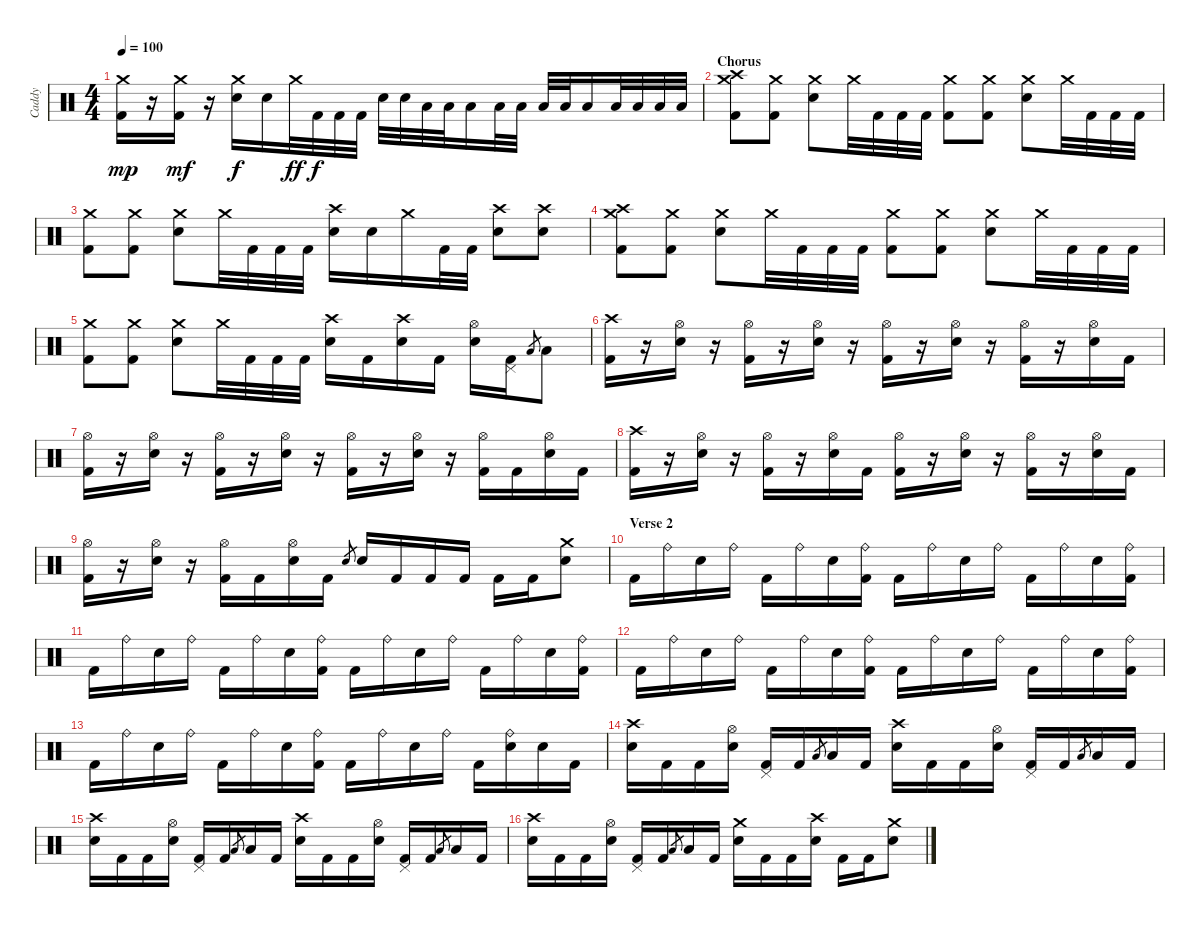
\track ("Caddy" "Caddy") {instrument percussion}
\staff {score}
\articulation defaults
\ts (4 4)
\tempo 100
\clef neutral
\ks c
("Crash medium (hit)" "Kick (hit) 2").16{dy mp} r.16 ("Crash medium (hit)" "Kick (hit) 2").16{dy mf} r.16 ("Crash medium (hit)" "Electric Snare (hit)").16{dy f} "Electric Snare (hit)".16 "Crash medium (hit)".32{dy ff} "Kick (hit) 2".32{dy f} "Kick (hit) 2".32 "Kick (hit) 2".32 "Electric Snare (hit)".32 "Electric Snare (hit)".32 "Low Tom (hit)".32 "Low Tom (hit)".32 "Low Tom (hit)".16 "Low Floor Tom (hit)".32 "Low Floor Tom (hit)".32 "Low Tom (hit)".32 "Low Tom (hit)".32 "Low Tom (hit)".16 "Low Floor Tom (hit)".32 "Low Floor Tom (hit)".32 "Low Floor Tom (hit)".32 "Low Floor Tom (hit)".32 |
\section ("" "Chorus")
("Crash medium (hit)" "Crash high (hit)" "Kick (hit) 2").8 ("Crash medium (hit)" "Kick (hit) 2").8 ("Crash medium (hit)" "Electric Snare (hit)").8 "Crash medium (hit)".32 "Kick (hit) 2".32 "Kick (hit) 2".32 "Kick (hit) 2".32 ("Crash medium (hit)" "Kick (hit) 2").8 ("Crash medium (hit)" "Kick (hit) 2").8 ("Crash medium (hit)" "Electric Snare (hit)").8 "Crash medium (hit)".32 "Kick (hit) 2".32 "Kick (hit) 2".32 "Kick (hit) 2".32 |
("Crash medium (hit)" "Kick (hit) 2").8 ("Crash medium (hit)" "Kick (hit) 2").8 ("Crash medium (hit)" "Electric Snare (hit)").8 "Crash medium (hit)".32 "Kick (hit) 2".32 "Kick (hit) 2".32 "Kick (hit) 2".32 ("Crash high (hit)" "Electric Snare (hit)").16 "Electric Snare (hit)".16 "Crash medium (hit)".16 "Kick (hit) 2".32 "Kick (hit) 2".32 ("Crash high (hit)" "Electric Snare (hit)").8 ("Crash high (hit)" "Electric Snare (hit)").8 |
("Crash medium (hit)" "Crash high (hit)" "Kick (hit) 2").8 ("Crash medium (hit)" "Kick (hit) 2").8 ("Crash medium (hit)" "Electric Snare (hit)").8 "Crash medium (hit)".32 "Kick (hit) 2".32 "Kick (hit) 2".32 "Kick (hit) 2".32 ("Crash medium (hit)" "Kick (hit) 2").8 ("Crash medium (hit)" "Kick (hit) 2").8 ("Crash medium (hit)" "Electric Snare (hit)").8 "Crash medium (hit)".32 "Kick (hit) 2".32 "Kick (hit) 2".32 "Kick (hit) 2".32 |
("Crash medium (hit)" "Kick (hit) 2").8 ("Crash medium (hit)" "Kick (hit) 2").8 ("Crash medium (hit)" "Electric Snare (hit)").8 "Crash medium (hit)".32 "Kick (hit) 2".32 "Kick (hit) 2".32 "Kick (hit) 2".32 ("Crash high (hit)" "Electric Snare (hit)").16 "Kick (hit) 2".16 ("Crash high (hit)" "Electric Snare (hit)").16 "Kick (hit) 2".16 ("Hi-Hat (open)" "Electric Snare (hit)").16 ("Pedal Hi-Hat (hit)" "Kick (hit) 2").16 "Low Floor Tom (hit)".8{gr} "Low Floor Tom (hit)".8 |
("Crash high (hit)" "Kick (hit) 2").16 r.16 ("Hi-Hat (open)" "Electric Snare (hit)").16 r.16 ("Hi-Hat (open)" "Kick (hit) 2").16 r.16 ("Hi-Hat (open)" "Electric Snare (hit)").16 r.16 ("Hi-Hat (open)" "Kick (hit) 2").16 r.16 ("Hi-Hat (open)" "Electric Snare (hit)").16 r.16 ("Hi-Hat (open)" "Kick (hit) 2").16 r.16 ("Hi-Hat (open)" "Electric Snare (hit)").16 "Kick (hit) 2".16 |
("Hi-Hat (open)" "Kick (hit) 2").16 r.16 ("Hi-Hat (open)" "Electric Snare (hit)").16 r.16 ("Hi-Hat (open)" "Kick (hit) 2").16 r.16 ("Hi-Hat (open)" "Electric Snare (hit)").16 r.16 ("Hi-Hat (open)" "Kick (hit) 2").16 r.16 ("Hi-Hat (open)" "Electric Snare (hit)").16 r.16 ("Hi-Hat (open)" "Kick (hit) 2").16 "Kick (hit) 2".16 ("Hi-Hat (open)" "Electric Snare (hit)").16 "Kick (hit) 2".16 |
("Crash high (hit)" "Kick (hit) 2").16 r.16 ("Hi-Hat (open)" "Electric Snare (hit)").16 r.16 ("Hi-Hat (open)" "Kick (hit) 2").16 r.16 ("Hi-Hat (open)" "Electric Snare (hit)").16 "Kick (hit) 2".16 ("Hi-Hat (open)" "Kick (hit) 2").16 r.16 ("Hi-Hat (open)" "Electric Snare (hit)").16 r.16 ("Hi-Hat (open)" "Kick (hit) 2").16 r.16 ("Hi-Hat (open)" "Electric Snare (hit)").16 "Kick (hit) 2".16 |
("Hi-Hat (open)" "Kick (hit) 2").16 r.16 ("Hi-Hat (open)" "Electric Snare (hit)").16 r.16 ("Hi-Hat (open)" "Kick (hit) 2").16 "Kick (hit) 2".16 ("Hi-Hat (open)" "Electric Snare (hit)").16 "Kick (hit) 2".16 "Electric Snare (hit)".8{gr} "Electric Snare (hit)".16 "Kick (hit) 2".16 "Kick (hit) 2".16 "Kick (hit) 2".16 "Kick (hit) 2".16 "Kick (hit) 2".16 ("Crash medium (hit)" "Electric Snare (hit)").8 |
\section ("" "Verse 2")
"Kick (hit) 2".16 "Ride (bell)".16 "Electric Snare (hit)".16 "Ride (bell)".16 "Kick (hit) 2".16 "Ride (bell)".16 "Electric Snare (hit)".16 ("Ride (bell)" "Kick (hit) 2").16 "Kick (hit) 2".16 "Ride (bell)".16 "Electric Snare (hit)".16 "Ride (bell)".16 "Kick (hit) 2".16 "Ride (bell)".16 "Electric Snare (hit)".16 ("Ride (bell)" "Kick (hit) 2").16 |
"Kick (hit) 2".16 "Ride (bell)".16 "Electric Snare (hit)".16 "Ride (bell)".16 "Kick (hit) 2".16 "Ride (bell)".16 "Electric Snare (hit)".16 ("Ride (bell)" "Kick (hit) 2").16 "Kick (hit) 2".16 "Ride (bell)".16 "Electric Snare (hit)".16 "Ride (bell)".16 "Kick (hit) 2".16 "Ride (bell)".16 "Electric Snare (hit)".16 ("Ride (bell)" "Kick (hit) 2").16 |
"Kick (hit) 2".16 "Ride (bell)".16 "Electric Snare (hit)".16 "Ride (bell)".16 "Kick (hit) 2".16 "Ride (bell)".16 "Electric Snare (hit)".16 ("Ride (bell)" "Kick (hit) 2").16 "Kick (hit) 2".16 "Ride (bell)".16 "Electric Snare (hit)".16 "Ride (bell)".16 "Kick (hit) 2".16 "Ride (bell)".16 "Electric Snare (hit)".16 ("Ride (bell)" "Kick (hit) 2").16 |
"Kick (hit) 2".16 "Ride (bell)".16 "Electric Snare (hit)".16 "Ride (bell)".16 "Kick (hit) 2".16 "Ride (bell)".16 "Electric Snare (hit)".16 ("Ride (bell)" "Kick (hit) 2").16 "Kick (hit) 2".16 "Ride (bell)".16 "Electric Snare (hit)".16 "Ride (bell)".16 "Kick (hit) 2".16 ("Ride (bell)" "Electric Snare (hit)").16 "Electric Snare (hit)".16 "Kick (hit) 2".16 |
("Crash high (hit)" "Electric Snare (hit)").16 "Kick (hit) 2".16 "Kick (hit) 2".16 ("Hi-Hat (open)" "Electric Snare (hit)").16 ("Pedal Hi-Hat (hit)" "Kick (hit) 2").16 "Kick (hit) 2".16 "Low Floor Tom (hit)".8{gr} "Low Floor Tom (hit)".16 "Kick (hit) 2".16 ("Crash high (hit)" "Electric Snare (hit)").16 "Kick (hit) 2".16 "Kick (hit) 2".16 ("Hi-Hat (open)" "Electric Snare (hit)").16 ("Pedal Hi-Hat (hit)" "Kick (hit) 2").16 "Kick (hit) 2".16 "Low Floor Tom (hit)".8{gr} "Low Floor Tom (hit)".16 "Kick (hit) 2".16 |
("Crash high (hit)" "Electric Snare (hit)").16 "Kick (hit) 2".16 "Kick (hit) 2".16 ("Hi-Hat (open)" "Electric Snare (hit)").16 ("Pedal Hi-Hat (hit)" "Kick (hit) 2").16 "Kick (hit) 2".16 "Low Floor Tom (hit)".8{gr} "Low Floor Tom (hit)".16 "Kick (hit) 2".16 ("Crash high (hit)" "Electric Snare (hit)").16 "Kick (hit) 2".16 "Kick (hit) 2".16 ("Hi-Hat (open)" "Electric Snare (hit)").16 ("Pedal Hi-Hat (hit)" "Kick (hit) 2").16 "Kick (hit) 2".16 "Low Floor Tom (hit)".8{gr} "Low Floor Tom (hit)".16 "Kick (hit) 2".16 |
("Crash high (hit)" "Electric Snare (hit)").16 "Kick (hit) 2".16 "Kick (hit) 2".16 ("Hi-Hat (open)" "Electric Snare (hit)").16 ("Pedal Hi-Hat (hit)" "Kick (hit) 2").16 "Kick (hit) 2".16 "Low Floor Tom (hit)".8{gr} "Low Floor Tom (hit)".16 "Kick (hit) 2".16 ("Crash medium (hit)" "Electric Snare (hit)").16 "Kick (hit) 2".16 "Kick (hit) 2".16 ("Crash high (hit)" "Electric Snare (hit)").16 "Kick (hit) 2".16 "Kick (hit) 2".16 ("Crash medium (hit)" "Electric Snare (hit)").8
